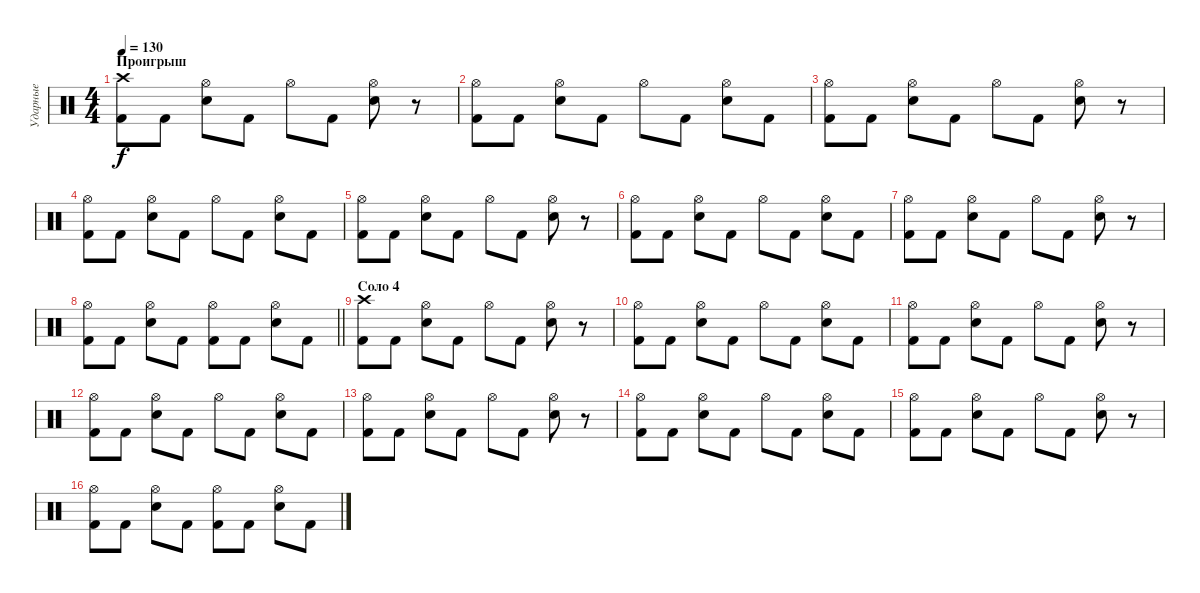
\track ("Ударные" "Ударные") {instrument percussion}
\staff {score}
\articulation defaults
\ts (4 4)
\section ("" "Проигрыш")
\tempo 130
\clef neutral
\ks c
("Crash high (hit)" "Kick (hit) 2").8{dy f} "Kick (hit) 2".8 ("Hi-Hat (open)" "Snare (hit) 2").8 "Kick (hit) 2".8 "Hi-Hat (open)".8 "Kick (hit) 2".8 ("Hi-Hat (open)" "Snare (hit) 2").8 r.8 |
("Hi-Hat (open)" "Kick (hit) 2").8 "Kick (hit) 2".8 ("Hi-Hat (open)" "Snare (hit) 2").8 "Kick (hit) 2".8 "Hi-Hat (open)".8 "Kick (hit) 2".8 ("Hi-Hat (open)" "Snare (hit) 2").8 "Kick (hit) 2".8 |
("Hi-Hat (open)" "Kick (hit) 2").8 "Kick (hit) 2".8 ("Hi-Hat (open)" "Snare (hit) 2").8 "Kick (hit) 2".8 "Hi-Hat (open)".8 "Kick (hit) 2".8 ("Hi-Hat (open)" "Snare (hit) 2").8 r.8 |
("Hi-Hat (open)" "Kick (hit) 2").8 "Kick (hit) 2".8 ("Hi-Hat (open)" "Snare (hit) 2").8 "Kick (hit) 2".8 "Hi-Hat (open)".8 "Kick (hit) 2".8 ("Hi-Hat (open)" "Snare (hit) 2").8 "Kick (hit) 2".8 |
("Hi-Hat (open)" "Kick (hit) 2").8 "Kick (hit) 2".8 ("Hi-Hat (open)" "Snare (hit) 2").8 "Kick (hit) 2".8 "Hi-Hat (open)".8 "Kick (hit) 2".8 ("Hi-Hat (open)" "Snare (hit) 2").8 r.8 |
("Hi-Hat (open)" "Kick (hit) 2").8 "Kick (hit) 2".8 ("Hi-Hat (open)" "Snare (hit) 2").8 "Kick (hit) 2".8 "Hi-Hat (open)".8 "Kick (hit) 2".8 ("Hi-Hat (open)" "Snare (hit) 2").8 "Kick (hit) 2".8 |
("Hi-Hat (open)" "Kick (hit) 2").8 "Kick (hit) 2".8 ("Hi-Hat (open)" "Snare (hit) 2").8 "Kick (hit) 2".8 "Hi-Hat (open)".8 "Kick (hit) 2".8 ("Hi-Hat (open)" "Snare (hit) 2").8 r.8 |
\barLineRight lightlight
("Hi-Hat (open)" "Kick (hit) 2").8 "Kick (hit) 2".8 ("Hi-Hat (open)" "Snare (hit) 2").8 "Kick (hit) 2".8 ("Hi-Hat (open)" "Kick (hit) 2").8 "Kick (hit) 2".8 ("Hi-Hat (open)" "Snare (hit) 2").8 "Kick (hit) 2".8 |
\section ("" "Соло 4")
("Crash high (hit)" "Kick (hit) 2").8 "Kick (hit) 2".8 ("Hi-Hat (open)" "Snare (hit) 2").8 "Kick (hit) 2".8 "Hi-Hat (open)".8 "Kick (hit) 2".8 ("Hi-Hat (open)" "Snare (hit) 2").8 r.8 |
("Hi-Hat (open)" "Kick (hit) 2").8 "Kick (hit) 2".8 ("Hi-Hat (open)" "Snare (hit) 2").8 "Kick (hit) 2".8 "Hi-Hat (open)".8 "Kick (hit) 2".8 ("Hi-Hat (open)" "Snare (hit) 2").8 "Kick (hit) 2".8 |
("Hi-Hat (open)" "Kick (hit) 2").8 "Kick (hit) 2".8 ("Hi-Hat (open)" "Snare (hit) 2").8 "Kick (hit) 2".8 "Hi-Hat (open)".8 "Kick (hit) 2".8 ("Hi-Hat (open)" "Snare (hit) 2").8 r.8 |
("Hi-Hat (open)" "Kick (hit) 2").8 "Kick (hit) 2".8 ("Hi-Hat (open)" "Snare (hit) 2").8 "Kick (hit) 2".8 "Hi-Hat (open)".8 "Kick (hit) 2".8 ("Hi-Hat (open)" "Snare (hit) 2").8 "Kick (hit) 2".8 |
("Hi-Hat (open)" "Kick (hit) 2").8 "Kick (hit) 2".8 ("Hi-Hat (open)" "Snare (hit) 2").8 "Kick (hit) 2".8 "Hi-Hat (open)".8 "Kick (hit) 2".8 ("Hi-Hat (open)" "Snare (hit) 2").8 r.8 |
("Hi-Hat (open)" "Kick (hit) 2").8 "Kick (hit) 2".8 ("Hi-Hat (open)" "Snare (hit) 2").8 "Kick (hit) 2".8 "Hi-Hat (open)".8 "Kick (hit) 2".8 ("Hi-Hat (open)" "Snare (hit) 2").8 "Kick (hit) 2".8 |
("Hi-Hat (open)" "Kick (hit) 2").8 "Kick (hit) 2".8 ("Hi-Hat (open)" "Snare (hit) 2").8 "Kick (hit) 2".8 "Hi-Hat (open)".8 "Kick (hit) 2".8 ("Hi-Hat (open)" "Snare (hit) 2").8 r.8 |
("Hi-Hat (open)" "Kick (hit) 2").8 "Kick (hit) 2".8 ("Hi-Hat (open)" "Snare (hit) 2").8 "Kick (hit) 2".8 ("Hi-Hat (open)" "Kick (hit) 2").8 "Kick (hit) 2".8 ("Hi-Hat (open)" "Snare (hit) 2").8 "Kick (hit) 2".8
